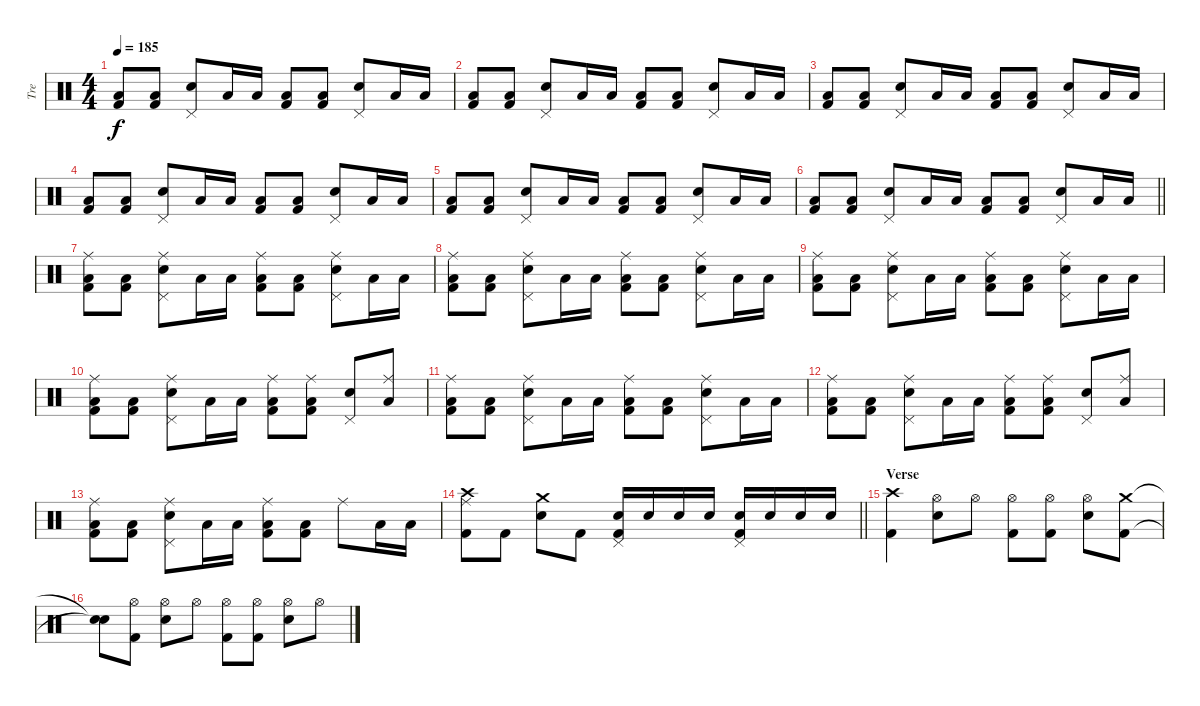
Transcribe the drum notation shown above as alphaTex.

\track ("Tre" "Tre") {instrument percussion}
\staff {score}
\articulation defaults
\ts (4 4)
\tempo 185
\clef neutral
\ks c
("Low Floor Tom (hit)" "Kick (hit) 2").8{dy f} ("Low Floor Tom (hit)" "Kick (hit) 2").8 ("Snare (hit) 2" "Pedal Hi-Hat (hit)").8 "Low Floor Tom (hit)".16 "Low Floor Tom (hit)".16 ("Low Floor Tom (hit)" "Kick (hit) 2").8 ("Low Floor Tom (hit)" "Kick (hit) 2").8 ("Snare (hit) 2" "Pedal Hi-Hat (hit)").8 "Low Floor Tom (hit)".16 "Low Floor Tom (hit)".16 |
("Low Floor Tom (hit)" "Kick (hit) 2").8 ("Low Floor Tom (hit)" "Kick (hit) 2").8 ("Snare (hit) 2" "Pedal Hi-Hat (hit)").8 "Low Floor Tom (hit)".16 "Low Floor Tom (hit)".16 ("Low Floor Tom (hit)" "Kick (hit) 2").8 ("Low Floor Tom (hit)" "Kick (hit) 2").8 ("Snare (hit) 2" "Pedal Hi-Hat (hit)").8 "Low Floor Tom (hit)".16 "Low Floor Tom (hit)".16 |
("Low Floor Tom (hit)" "Kick (hit) 2").8 ("Low Floor Tom (hit)" "Kick (hit) 2").8 ("Snare (hit) 2" "Pedal Hi-Hat (hit)").8 "Low Floor Tom (hit)".16 "Low Floor Tom (hit)".16 ("Low Floor Tom (hit)" "Kick (hit) 2").8 ("Low Floor Tom (hit)" "Kick (hit) 2").8 ("Snare (hit) 2" "Pedal Hi-Hat (hit)").8 "Low Floor Tom (hit)".16 "Low Floor Tom (hit)".16 |
("Low Floor Tom (hit)" "Kick (hit) 2").8 ("Low Floor Tom (hit)" "Kick (hit) 2").8 ("Snare (hit) 2" "Pedal Hi-Hat (hit)").8 "Low Floor Tom (hit)".16 "Low Floor Tom (hit)".16 ("Low Floor Tom (hit)" "Kick (hit) 2").8 ("Low Floor Tom (hit)" "Kick (hit) 2").8 ("Snare (hit) 2" "Pedal Hi-Hat (hit)").8 "Low Floor Tom (hit)".16 "Low Floor Tom (hit)".16 |
("Low Floor Tom (hit)" "Kick (hit) 2").8 ("Low Floor Tom (hit)" "Kick (hit) 2").8 ("Snare (hit) 2" "Pedal Hi-Hat (hit)").8 "Low Floor Tom (hit)".16 "Low Floor Tom (hit)".16 ("Low Floor Tom (hit)" "Kick (hit) 2").8 ("Low Floor Tom (hit)" "Kick (hit) 2").8 ("Snare (hit) 2" "Pedal Hi-Hat (hit)").8 "Low Floor Tom (hit)".16 "Low Floor Tom (hit)".16 |
\barLineRight lightlight
("Low Floor Tom (hit)" "Kick (hit) 2").8 ("Low Floor Tom (hit)" "Kick (hit) 2").8 ("Snare (hit) 2" "Pedal Hi-Hat (hit)").8 "Low Floor Tom (hit)".16 "Low Floor Tom (hit)".16 ("Low Floor Tom (hit)" "Kick (hit) 2").8 ("Low Floor Tom (hit)" "Kick (hit) 2").8 ("Snare (hit) 2" "Pedal Hi-Hat (hit)").8 "Low Floor Tom (hit)".16 "Low Floor Tom (hit)".16 |
("Ride (middle)" "Low Floor Tom (hit)" "Kick (hit) 2").8 ("Low Floor Tom (hit)" "Kick (hit) 2").8 ("Ride (middle)" "Snare (hit) 2" "Pedal Hi-Hat (hit)").8 "Low Floor Tom (hit)".16 "Low Floor Tom (hit)".16 ("Ride (middle)" "Low Floor Tom (hit)" "Kick (hit) 2").8 ("Low Floor Tom (hit)" "Kick (hit) 2").8 ("Ride (middle)" "Snare (hit) 2" "Pedal Hi-Hat (hit)").8 "Low Floor Tom (hit)".16 "Low Floor Tom (hit)".16 |
("Ride (middle)" "Low Floor Tom (hit)" "Kick (hit) 2").8 ("Low Floor Tom (hit)" "Kick (hit) 2").8 ("Ride (middle)" "Snare (hit) 2" "Pedal Hi-Hat (hit)").8 "Low Floor Tom (hit)".16 "Low Floor Tom (hit)".16 ("Ride (middle)" "Low Floor Tom (hit)" "Kick (hit) 2").8 ("Low Floor Tom (hit)" "Kick (hit) 2").8 ("Ride (middle)" "Snare (hit) 2" "Pedal Hi-Hat (hit)").8 "Low Floor Tom (hit)".16 "Low Floor Tom (hit)".16 |
("Ride (middle)" "Low Floor Tom (hit)" "Kick (hit) 2").8 ("Low Floor Tom (hit)" "Kick (hit) 2").8 ("Ride (middle)" "Snare (hit) 2" "Pedal Hi-Hat (hit)").8 "Low Floor Tom (hit)".16 "Low Floor Tom (hit)".16 ("Ride (middle)" "Low Floor Tom (hit)" "Kick (hit) 2").8 ("Low Floor Tom (hit)" "Kick (hit) 2").8 ("Ride (middle)" "Snare (hit) 2" "Pedal Hi-Hat (hit)").8 "Low Floor Tom (hit)".16 "Low Floor Tom (hit)".16 |
("Ride (middle)" "Low Floor Tom (hit)" "Kick (hit) 2").8 ("Low Floor Tom (hit)" "Kick (hit) 2").8 ("Ride (middle)" "Snare (hit) 2" "Pedal Hi-Hat (hit)").8 "Low Floor Tom (hit)".16 "Low Floor Tom (hit)".16 ("Ride (middle)" "Low Floor Tom (hit)" "Kick (hit) 2").8 ("Ride (middle)" "Low Floor Tom (hit)" "Kick (hit) 2").8 ("Snare (hit) 2" "Pedal Hi-Hat (hit)").8 ("Ride (middle)" "Low Floor Tom (hit)").8 |
("Ride (middle)" "Low Floor Tom (hit)" "Kick (hit) 2").8 ("Low Floor Tom (hit)" "Kick (hit) 2").8 ("Ride (middle)" "Snare (hit) 2" "Pedal Hi-Hat (hit)").8 "Low Floor Tom (hit)".16 "Low Floor Tom (hit)".16 ("Ride (middle)" "Low Floor Tom (hit)" "Kick (hit) 2").8 ("Low Floor Tom (hit)" "Kick (hit) 2").8 ("Ride (middle)" "Snare (hit) 2" "Pedal Hi-Hat (hit)").8 "Low Floor Tom (hit)".16 "Low Floor Tom (hit)".16 |
("Ride (middle)" "Low Floor Tom (hit)" "Kick (hit) 2").8 ("Low Floor Tom (hit)" "Kick (hit) 2").8 ("Ride (middle)" "Snare (hit) 2" "Pedal Hi-Hat (hit)").8 "Low Floor Tom (hit)".16 "Low Floor Tom (hit)".16 ("Ride (middle)" "Low Floor Tom (hit)" "Kick (hit) 2").8 ("Ride (middle)" "Low Floor Tom (hit)" "Kick (hit) 2").8 ("Snare (hit) 2" "Pedal Hi-Hat (hit)").8 ("Ride (middle)" "Low Floor Tom (hit)").8 |
("Ride (middle)" "Low Floor Tom (hit)" "Kick (hit) 2").8 ("Low Floor Tom (hit)" "Kick (hit) 2").8 ("Ride (middle)" "Snare (hit) 2" "Pedal Hi-Hat (hit)").8 "Low Floor Tom (hit)".16 "Low Floor Tom (hit)".16 ("Ride (middle)" "Low Floor Tom (hit)" "Kick (hit) 2").8 ("Low Floor Tom (hit)" "Kick (hit) 2").8 "Ride (middle)".8 "Low Floor Tom (hit)".16 "Low Floor Tom (hit)".16 |
\barLineRight lightlight
("Crash high (hit)" "Ride (middle)" "Kick (hit) 2").8 "Kick (hit) 2".8 ("Crash medium (hit)" "Snare (hit) 2").8 "Kick (hit) 2".8 ("Snare (hit) 2" "Pedal Hi-Hat (hit)" "Kick (hit) 2").16 "Snare (hit) 2".16 "Snare (hit) 2".16 "Snare (hit) 2".16 ("Snare (hit) 2" "Pedal Hi-Hat (hit)" "Kick (hit) 2").16 "Snare (hit) 2".16 "Snare (hit) 2".16 "Snare (hit) 2".16 |
\section ("" "Verse")
("Crash high (hit)" "Kick (hit) 2").4 ("Hi-Hat (open)" "Snare (hit) 2").8 "Hi-Hat (open)".8 ("Hi-Hat (open)" "Kick (hit) 2").8 ("Hi-Hat (open)" "Kick (hit) 2").8 ("Hi-Hat (open)" "Snare (hit) 2").8 ("Crash medium (hit)" "Kick (hit) 2").8 |
("Snare (hit)"{t} "Snare (hit)"{t}).8 ("Hi-Hat (open)" "Kick (hit) 2").8 ("Hi-Hat (open)" "Snare (hit) 2").8 "Hi-Hat (open)".8 ("Hi-Hat (open)" "Kick (hit) 2").8 ("Hi-Hat (open)" "Kick (hit) 2").8 ("Hi-Hat (open)" "Snare (hit) 2").8 "Hi-Hat (open)".8
